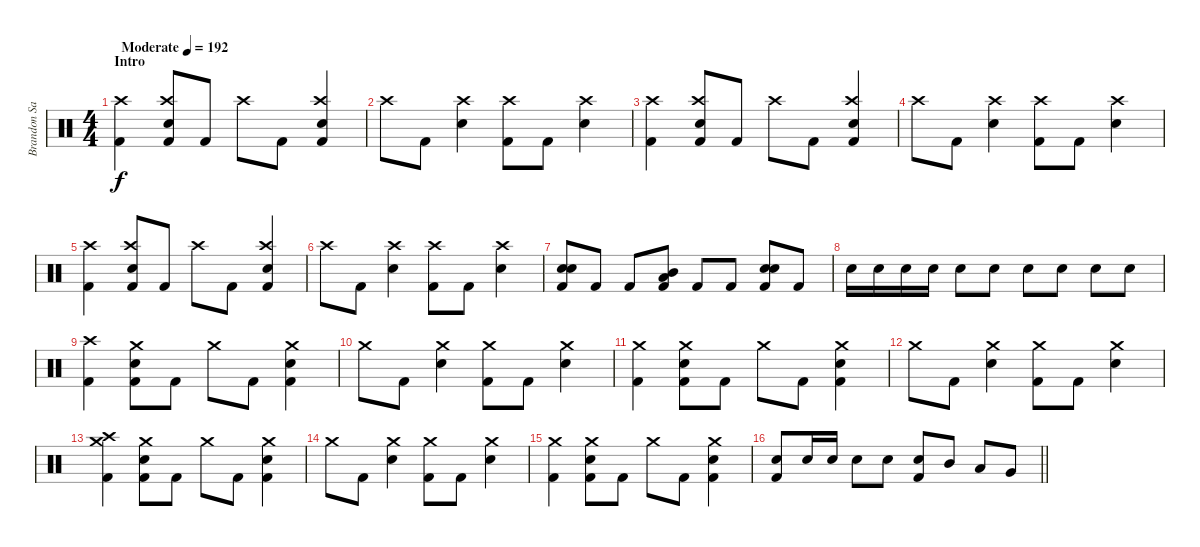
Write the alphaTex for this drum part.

\track ("Brandon Saller" "Brandon Sa") {instrument percussion}
\staff {score}
\articulation defaults
\ts (4 4)
\section ("" "Intro")
\tempo (192 "Moderate")
\clef neutral
\ks aminor
("Kick (hit) 2" "Crash high (hit)").4{dy f} ("Kick (hit) 2" "Snare (hit) 2" "Crash high (hit)").8 "Kick (hit) 2".8 "Crash high (hit)".8 "Kick (hit) 2".8 ("Kick (hit) 2" "Snare (hit) 2" "Crash high (hit)").4 |
"Crash high (hit)".8 "Kick (hit) 2".8 ("Snare (hit) 2" "Crash high (hit)").4 ("Kick (hit) 2" "Crash high (hit)").8 "Kick (hit) 2".8 ("Snare (hit) 2" "Crash high (hit)").4 |
("Kick (hit) 2" "Crash high (hit)").4 ("Kick (hit) 2" "Snare (hit) 2" "Crash high (hit)").8 "Kick (hit) 2".8 "Crash high (hit)".8 "Kick (hit) 2".8 ("Kick (hit) 2" "Snare (hit) 2" "Crash high (hit)").4 |
"Crash high (hit)".8 "Kick (hit) 2".8 ("Snare (hit) 2" "Crash high (hit)").4 ("Kick (hit) 2" "Crash high (hit)").8 "Kick (hit) 2".8 ("Snare (hit) 2" "Crash high (hit)").4 |
("Kick (hit) 2" "Crash high (hit)").4 ("Kick (hit) 2" "Snare (hit) 2" "Crash high (hit)").8 "Kick (hit) 2".8 "Crash high (hit)".8 "Kick (hit) 2".8 ("Kick (hit) 2" "Snare (hit) 2" "Crash high (hit)").4 |
"Crash high (hit)".8 "Kick (hit) 2".8 ("Snare (hit) 2" "Crash high (hit)").4 ("Kick (hit) 2" "Crash high (hit)").8 "Kick (hit) 2".8 ("Snare (hit) 2" "Crash high (hit)").4 |
("Kick (hit) 2" "Snare (hit) 2" "Snare (hit) 2").8 "Kick (hit) 2".8 "Kick (hit) 2".8 ("Kick (hit) 2" "Mid Tom (hit)" "Low Floor Tom (hit)").8 "Kick (hit) 2".8 "Kick (hit) 2".8 ("Kick (hit) 2" "Snare (hit) 2" "Snare (hit) 2").8 "Kick (hit) 2".8 |
"Snare (hit) 2".16 "Snare (hit) 2".16 "Snare (hit) 2".16 "Snare (hit) 2".16 "Snare (hit) 2".8 "Snare (hit) 2".8 "Snare (hit) 2".8 "Snare (hit) 2".8 "Snare (hit) 2".8 "Snare (hit) 2".8 |
("Kick (hit) 2" "Crash high (hit)").4 ("Kick (hit) 2" "Snare (hit) 2" "Crash medium (hit)").8 "Kick (hit) 2".8 "Crash medium (hit)".8 "Kick (hit) 2".8 ("Kick (hit) 2" "Snare (hit) 2" "Crash medium (hit)").4 |
"Crash medium (hit)".8 "Kick (hit) 2".8 ("Snare (hit) 2" "Crash medium (hit)").4 ("Kick (hit) 2" "Crash medium (hit)").8 "Kick (hit) 2".8 ("Snare (hit) 2" "Crash medium (hit)").4 |
("Kick (hit) 2" "Crash medium (hit)").4 ("Kick (hit) 2" "Snare (hit) 2" "Crash medium (hit)").8 "Kick (hit) 2".8 "Crash medium (hit)".8 "Kick (hit) 2".8 ("Kick (hit) 2" "Snare (hit) 2" "Crash medium (hit)").4 |
"Crash medium (hit)".8 "Kick (hit) 2".8 ("Snare (hit) 2" "Crash medium (hit)").4 ("Kick (hit) 2" "Crash medium (hit)").8 "Kick (hit) 2".8 ("Snare (hit) 2" "Crash medium (hit)").4 |
("Kick (hit) 2" "Crash high (hit)" "Crash medium (hit)").4 ("Kick (hit) 2" "Snare (hit) 2" "Crash medium (hit)").8 "Kick (hit) 2".8 "Crash medium (hit)".8 "Kick (hit) 2".8 ("Kick (hit) 2" "Snare (hit) 2" "Crash medium (hit)").4 |
"Crash medium (hit)".8 "Kick (hit) 2".8 ("Snare (hit) 2" "Crash medium (hit)").4 ("Kick (hit) 2" "Crash medium (hit)").8 "Kick (hit) 2".8 ("Snare (hit) 2" "Crash medium (hit)").4 |
("Kick (hit) 2" "Crash medium (hit)").4 ("Kick (hit) 2" "Snare (hit) 2" "Crash medium (hit)").8 "Kick (hit) 2".8 "Crash medium (hit)".8 "Kick (hit) 2".8 ("Kick (hit) 2" "Snare (hit) 2" "Crash medium (hit)").4 |
\barLineRight lightlight
("Kick (hit) 2" "Snare (hit) 2").8 "Snare (hit) 2".16 "Snare (hit) 2".16 "Snare (hit) 2".8 "Snare (hit) 2".8 ("Kick (hit) 2" "Snare (hit) 2").8 "Mid Tom (hit)".8 "Low Tom (hit)".8 "Very Low Tom (hit)".8
